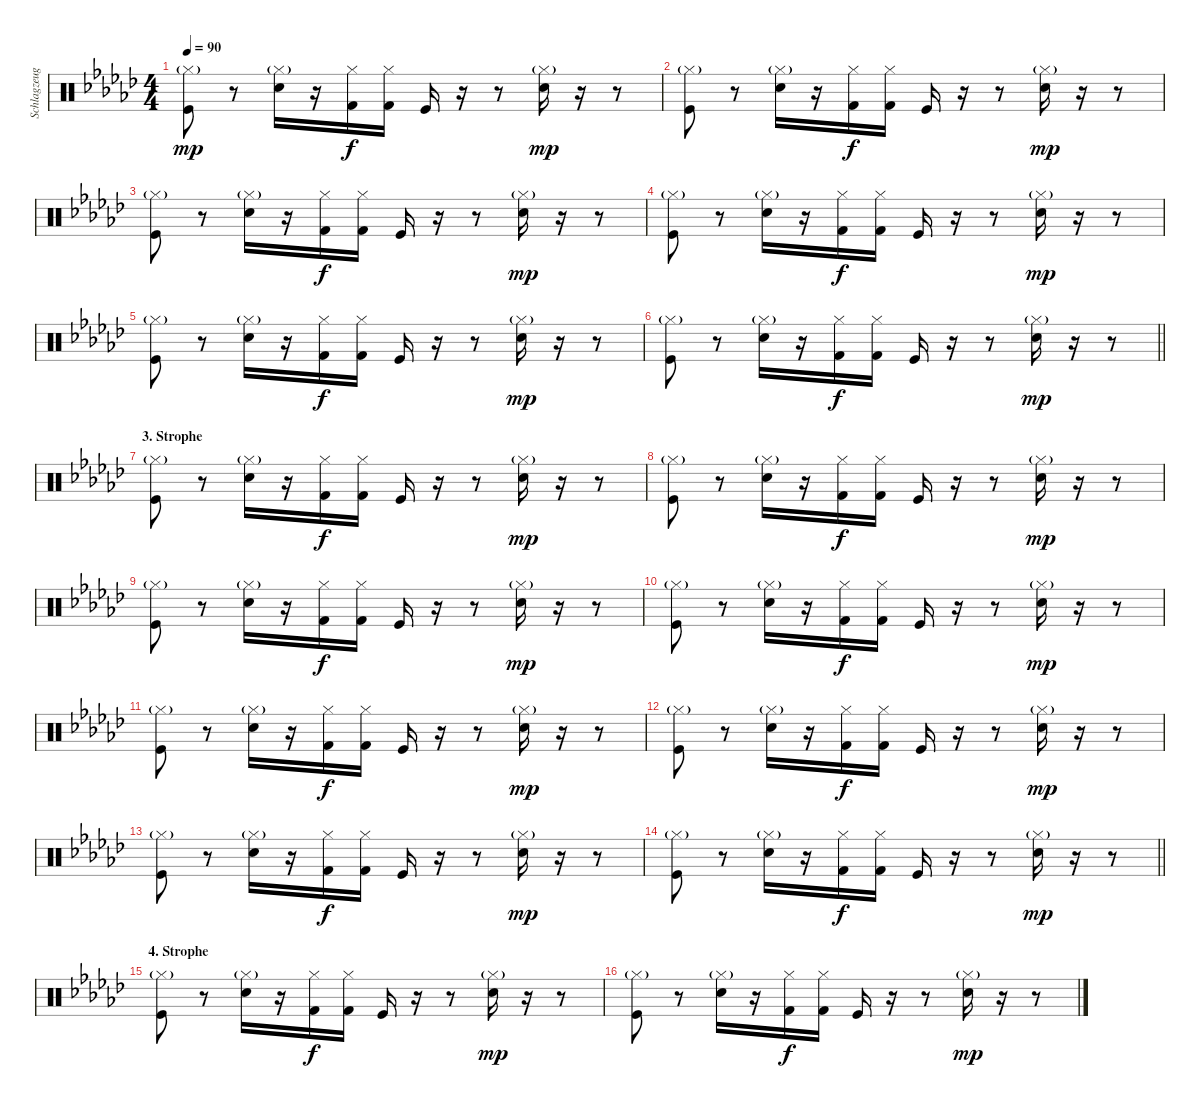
\track ("Schlagzeug" "Schlagzeug") {instrument percussion}
\staff {score}
\articulation defaults
\ts (4 4)
\tempo 90
\clef neutral
\ks ebminor
("Hi-Hat (closed)"{g} "Kick (hit)").8{dy mp} r.8 ("Hi-Hat (closed)"{g} "Electric Snare (hit)").16 r.16 ("Hi-Hat (closed)" "Kick (hit) 2").16{dy f} ("Hi-Hat (closed)" "Kick (hit) 2").16 "Kick (hit)".16 r.16 r.8 ("Hi-Hat (closed)"{g} "Electric Snare (hit)").16{dy mp} r.16 r.8 |
("Hi-Hat (closed)"{g} "Kick (hit)").8 r.8 ("Hi-Hat (closed)"{g} "Electric Snare (hit)").16 r.16 ("Hi-Hat (closed)" "Kick (hit) 2").16{dy f} ("Hi-Hat (closed)" "Kick (hit) 2").16 "Kick (hit)".16 r.16 r.8 ("Hi-Hat (closed)"{g} "Electric Snare (hit)").16{dy mp} r.16 r.8 |
("Hi-Hat (closed)"{g} "Kick (hit)").8 r.8 ("Hi-Hat (closed)"{g} "Electric Snare (hit)").16 r.16 ("Hi-Hat (closed)" "Kick (hit) 2").16{dy f} ("Hi-Hat (closed)" "Kick (hit) 2").16 "Kick (hit)".16 r.16 r.8 ("Hi-Hat (closed)"{g} "Electric Snare (hit)").16{dy mp} r.16 r.8 |
("Hi-Hat (closed)"{g} "Kick (hit)").8 r.8 ("Hi-Hat (closed)"{g} "Electric Snare (hit)").16 r.16 ("Hi-Hat (closed)" "Kick (hit) 2").16{dy f} ("Hi-Hat (closed)" "Kick (hit) 2").16 "Kick (hit)".16 r.16 r.8 ("Hi-Hat (closed)"{g} "Electric Snare (hit)").16{dy mp} r.16 r.8 |
("Hi-Hat (closed)"{g} "Kick (hit)").8 r.8 ("Hi-Hat (closed)"{g} "Electric Snare (hit)").16 r.16 ("Hi-Hat (closed)" "Kick (hit) 2").16{dy f} ("Hi-Hat (closed)" "Kick (hit) 2").16 "Kick (hit)".16 r.16 r.8 ("Hi-Hat (closed)"{g} "Electric Snare (hit)").16{dy mp} r.16 r.8 |
\barLineRight lightlight
("Hi-Hat (closed)"{g} "Kick (hit)").8 r.8 ("Hi-Hat (closed)"{g} "Electric Snare (hit)").16 r.16 ("Hi-Hat (closed)" "Kick (hit) 2").16{dy f} ("Hi-Hat (closed)" "Kick (hit) 2").16 "Kick (hit)".16 r.16 r.8 ("Hi-Hat (closed)"{g} "Electric Snare (hit)").16{dy mp} r.16 r.8 |
\section ("" "3. Strophe")
("Hi-Hat (closed)"{g} "Kick (hit)").8 r.8 ("Hi-Hat (closed)"{g} "Electric Snare (hit)").16 r.16 ("Hi-Hat (closed)" "Kick (hit) 2").16{dy f} ("Hi-Hat (closed)" "Kick (hit) 2").16 "Kick (hit)".16 r.16 r.8 ("Hi-Hat (closed)"{g} "Electric Snare (hit)").16{dy mp} r.16 r.8 |
("Hi-Hat (closed)"{g} "Kick (hit)").8 r.8 ("Hi-Hat (closed)"{g} "Electric Snare (hit)").16 r.16 ("Hi-Hat (closed)" "Kick (hit) 2").16{dy f} ("Hi-Hat (closed)" "Kick (hit) 2").16 "Kick (hit)".16 r.16 r.8 ("Hi-Hat (closed)"{g} "Electric Snare (hit)").16{dy mp} r.16 r.8 |
("Hi-Hat (closed)"{g} "Kick (hit)").8 r.8 ("Hi-Hat (closed)"{g} "Electric Snare (hit)").16 r.16 ("Hi-Hat (closed)" "Kick (hit) 2").16{dy f} ("Hi-Hat (closed)" "Kick (hit) 2").16 "Kick (hit)".16 r.16 r.8 ("Hi-Hat (closed)"{g} "Electric Snare (hit)").16{dy mp} r.16 r.8 |
("Hi-Hat (closed)"{g} "Kick (hit)").8 r.8 ("Hi-Hat (closed)"{g} "Electric Snare (hit)").16 r.16 ("Hi-Hat (closed)" "Kick (hit) 2").16{dy f} ("Hi-Hat (closed)" "Kick (hit) 2").16 "Kick (hit)".16 r.16 r.8 ("Hi-Hat (closed)"{g} "Electric Snare (hit)").16{dy mp} r.16 r.8 |
("Hi-Hat (closed)"{g} "Kick (hit)").8 r.8 ("Hi-Hat (closed)"{g} "Electric Snare (hit)").16 r.16 ("Hi-Hat (closed)" "Kick (hit) 2").16{dy f} ("Hi-Hat (closed)" "Kick (hit) 2").16 "Kick (hit)".16 r.16 r.8 ("Hi-Hat (closed)"{g} "Electric Snare (hit)").16{dy mp} r.16 r.8 |
("Hi-Hat (closed)"{g} "Kick (hit)").8 r.8 ("Hi-Hat (closed)"{g} "Electric Snare (hit)").16 r.16 ("Hi-Hat (closed)" "Kick (hit) 2").16{dy f} ("Hi-Hat (closed)" "Kick (hit) 2").16 "Kick (hit)".16 r.16 r.8 ("Hi-Hat (closed)"{g} "Electric Snare (hit)").16{dy mp} r.16 r.8 |
("Hi-Hat (closed)"{g} "Kick (hit)").8 r.8 ("Hi-Hat (closed)"{g} "Electric Snare (hit)").16 r.16 ("Hi-Hat (closed)" "Kick (hit) 2").16{dy f} ("Hi-Hat (closed)" "Kick (hit) 2").16 "Kick (hit)".16 r.16 r.8 ("Hi-Hat (closed)"{g} "Electric Snare (hit)").16{dy mp} r.16 r.8 |
\barLineRight lightlight
("Hi-Hat (closed)"{g} "Kick (hit)").8 r.8 ("Hi-Hat (closed)"{g} "Electric Snare (hit)").16 r.16 ("Hi-Hat (closed)" "Kick (hit) 2").16{dy f} ("Hi-Hat (closed)" "Kick (hit) 2").16 "Kick (hit)".16 r.16 r.8 ("Hi-Hat (closed)"{g} "Electric Snare (hit)").16{dy mp} r.16 r.8 |
\section ("" "4. Strophe")
("Hi-Hat (closed)"{g} "Kick (hit)").8 r.8 ("Hi-Hat (closed)"{g} "Electric Snare (hit)").16 r.16 ("Hi-Hat (closed)" "Kick (hit) 2").16{dy f} ("Hi-Hat (closed)" "Kick (hit) 2").16 "Kick (hit)".16 r.16 r.8 ("Hi-Hat (closed)"{g} "Electric Snare (hit)").16{dy mp} r.16 r.8 |
("Hi-Hat (closed)"{g} "Kick (hit)").8 r.8 ("Hi-Hat (closed)"{g} "Electric Snare (hit)").16 r.16 ("Hi-Hat (closed)" "Kick (hit) 2").16{dy f} ("Hi-Hat (closed)" "Kick (hit) 2").16 "Kick (hit)".16 r.16 r.8 ("Hi-Hat (closed)"{g} "Electric Snare (hit)").16{dy mp} r.16 r.8
